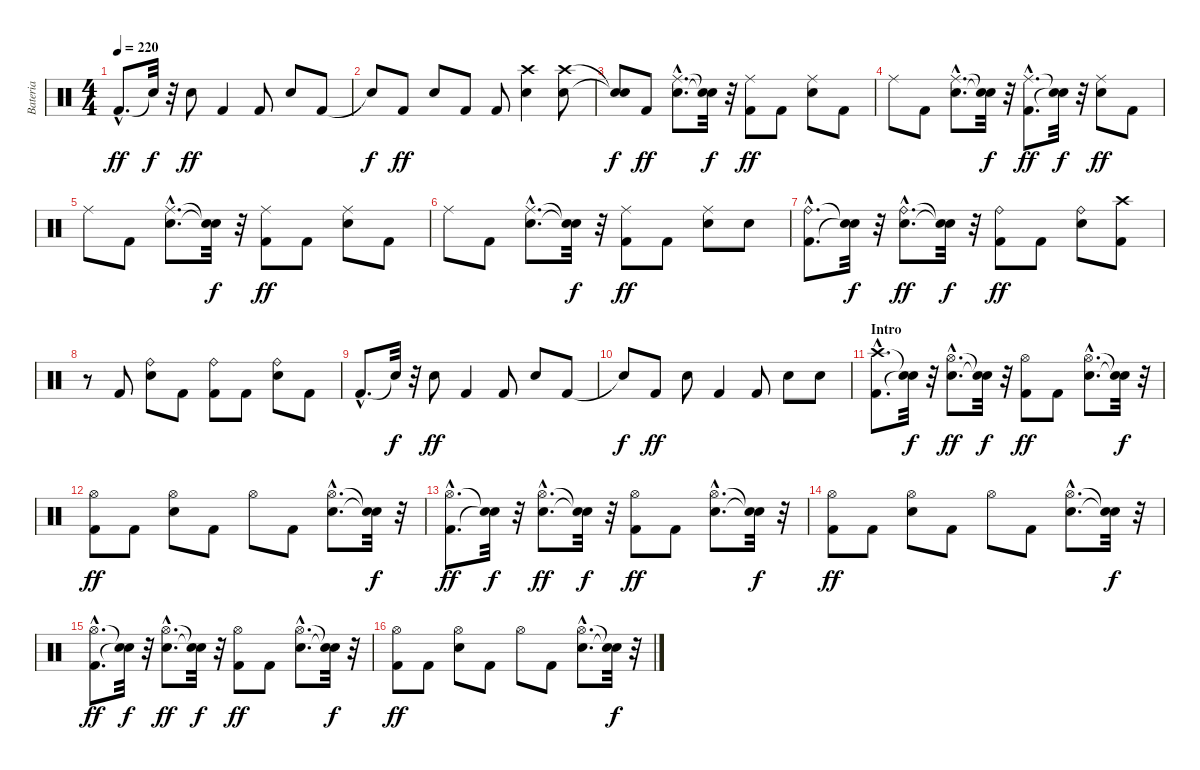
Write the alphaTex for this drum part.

\track ("Bateria" "Bateria") {instrument percussion}
\staff {score}
\articulation defaults
\ts (4 4)
\tempo 220
\clef neutral
\ks c "Kick (hit) 2"{hac}.8{d dy ff} "Snare (hit)"{t}.32{dy f}
r.32 "Electric Snare (hit)".8{dy ff} "Kick (hit) 2".4 "Kick (hit) 2".8 "Electric Snare (hit)".8 "Kick (hit) 2".8 |
"Snare (hit)"{t}.8{dy f} "Kick (hit) 2".8{dy ff} "Electric Snare (hit)".8 "Kick (hit) 2".8 "Kick (hit) 2".8 ("Electric Snare (hit)" "Crash high (hit)").4 ("Electric Snare (hit)" "Crash high (hit)").8 |
("Snare (hit)"{t} "Snare (hit)"{t}).8{dy f} "Kick (hit) 2".8{dy ff} ("Electric Snare (hit)"{hac} "Ride (middle)"{hac}).8{d} ("Snare (hit)"{t} "Snare (hit)"{t}).32{dy f} r.32 ("Kick (hit) 2" "Ride (middle)").8{dy ff} "Kick (hit) 2".8 ("Electric Snare (hit)" "Ride (middle)").8 "Kick (hit) 2".8 |
"Ride (middle)".8 "Kick (hit) 2".8 ("Electric Snare (hit)"{hac} "Ride (middle)"{hac}).8{d} ("Snare (hit)"{t} "Snare (hit)"{t}).32{dy f} r.32 ("Kick (hit) 2"{hac} "Ride (middle)"{hac}).8{d dy ff} ("Snare (hit)"{t} "Snare (hit)"{t}).32{dy f} r.32 ("Electric Snare (hit)" "Ride (middle)").8{dy ff} "Kick (hit) 2".8 |
"Ride (middle)".8 "Kick (hit) 2".8 ("Electric Snare (hit)"{hac} "Ride (middle)"{hac}).8{d} ("Snare (hit)"{t} "Snare (hit)"{t}).32{dy f} r.32 ("Kick (hit) 2" "Ride (middle)").8{dy ff} "Kick (hit) 2".8 ("Electric Snare (hit)" "Ride (middle)").8 "Kick (hit) 2".8 |
"Ride (middle)".8 "Kick (hit) 2".8 ("Electric Snare (hit)"{hac} "Ride (middle)"{hac}).8{d} ("Snare (hit)"{t} "Snare (hit)"{t}).32{dy f} r.32 ("Kick (hit) 2" "Ride (middle)").8{dy ff} "Kick (hit) 2".8 ("Electric Snare (hit)" "Ride (middle)").8 "Electric Snare (hit)".8 |
("Kick (hit) 2"{hac} "Ride (bell)"{hac}).8{d} ("Snare (hit)"{t} "Snare (hit)"{t}).32{dy f} r.32 ("Electric Snare (hit)"{hac} "Ride (bell)"{hac}).8{d dy ff} ("Snare (hit)"{t} "Snare (hit)"{t}).32{dy f} r.32 ("Kick (hit) 2" "Ride (bell)").8{dy ff} "Kick (hit) 2".8 ("Electric Snare (hit)" "Ride (bell)").8 ("Kick (hit) 2" "Crash high (hit)").8 |
r.8 "Kick (hit) 2".8 ("Electric Snare (hit)" "Ride (bell)").8 "Kick (hit) 2".8 ("Kick (hit) 2" "Ride (bell)").8 "Kick (hit) 2".8 ("Electric Snare (hit)" "Ride (bell)").8 "Kick (hit) 2".8 |
"Kick (hit) 2"{hac}.8{d} "Snare (hit)"{t}.32{dy f} r.32 "Electric Snare (hit)".8{dy ff} "Kick (hit) 2".4 "Kick (hit) 2".8 "Electric Snare (hit)".8 "Kick (hit) 2".8 |
"Snare (hit)"{t}.8{dy f} "Kick (hit) 2".8{dy ff} "Electric Snare (hit)".8 "Kick (hit) 2".4 "Kick (hit) 2".8 "Electric Snare (hit)".8 "Electric Snare (hit)".8 |
\section ("" "Intro")
("Kick (hit) 2"{hac} "Crash high (hit)"{hac}).8{d} ("Snare (hit)"{t} "Snare (hit)"{t}).32{dy f} r.32 ("Electric Snare (hit)"{hac} "Hi-Hat (open)"{hac}).8{d dy ff} ("Snare (hit)"{t} "Snare (hit)"{t}).32{dy f} r.32 ("Kick (hit) 2" "Hi-Hat (open)").8{dy ff} "Kick (hit) 2".8 ("Electric Snare (hit)"{hac} "Hi-Hat (open)"{hac}).8{d} ("Snare (hit)"{t} "Snare (hit)"{t}).32{dy f} r.32 |
("Kick (hit) 2" "Hi-Hat (open)").8{dy ff} "Kick (hit) 2".8 ("Electric Snare (hit)" "Hi-Hat (open)").8 "Kick (hit) 2".8 "Hi-Hat (open)".8 "Kick (hit) 2".8 ("Electric Snare (hit)"{hac} "Hi-Hat (open)"{hac}).8{d} ("Snare (hit)"{t} "Snare (hit)"{t}).32{dy f} r.32 |
("Kick (hit) 2"{hac} "Hi-Hat (open)"{hac}).8{d dy ff} ("Snare (hit)"{t} "Snare (hit)"{t}).32{dy f} r.32 ("Electric Snare (hit)"{hac} "Hi-Hat (open)"{hac}).8{d dy ff} ("Snare (hit)"{t} "Snare (hit)"{t}).32{dy f} r.32 ("Kick (hit) 2" "Hi-Hat (open)").8{dy ff} "Kick (hit) 2".8 ("Electric Snare (hit)"{hac} "Hi-Hat (open)"{hac}).8{d} ("Snare (hit)"{t} "Snare (hit)"{t}).32{dy f} r.32 |
("Kick (hit) 2" "Hi-Hat (open)").8{dy ff} "Kick (hit) 2".8 ("Electric Snare (hit)" "Hi-Hat (open)").8 "Kick (hit) 2".8 "Hi-Hat (open)".8 "Kick (hit) 2".8 ("Electric Snare (hit)"{hac} "Hi-Hat (open)"{hac}).8{d} ("Snare (hit)"{t} "Snare (hit)"{t}).32{dy f} r.32 |
("Kick (hit) 2"{hac} "Hi-Hat (open)"{hac}).8{d dy ff} ("Snare (hit)"{t} "Snare (hit)"{t}).32{dy f} r.32 ("Electric Snare (hit)"{hac} "Hi-Hat (open)"{hac}).8{d dy ff} ("Snare (hit)"{t} "Snare (hit)"{t}).32{dy f} r.32 ("Kick (hit) 2" "Hi-Hat (open)").8{dy ff} "Kick (hit) 2".8 ("Electric Snare (hit)"{hac} "Hi-Hat (open)"{hac}).8{d} ("Snare (hit)"{t} "Snare (hit)"{t}).32{dy f} r.32 |
("Kick (hit) 2" "Hi-Hat (open)").8{dy ff} "Kick (hit) 2".8 ("Electric Snare (hit)" "Hi-Hat (open)").8 "Kick (hit) 2".8 "Hi-Hat (open)".8 "Kick (hit) 2".8 ("Electric Snare (hit)"{hac} "Hi-Hat (open)"{hac}).8{d} ("Snare (hit)"{t} "Snare (hit)"{t}).32{dy f} r.32
